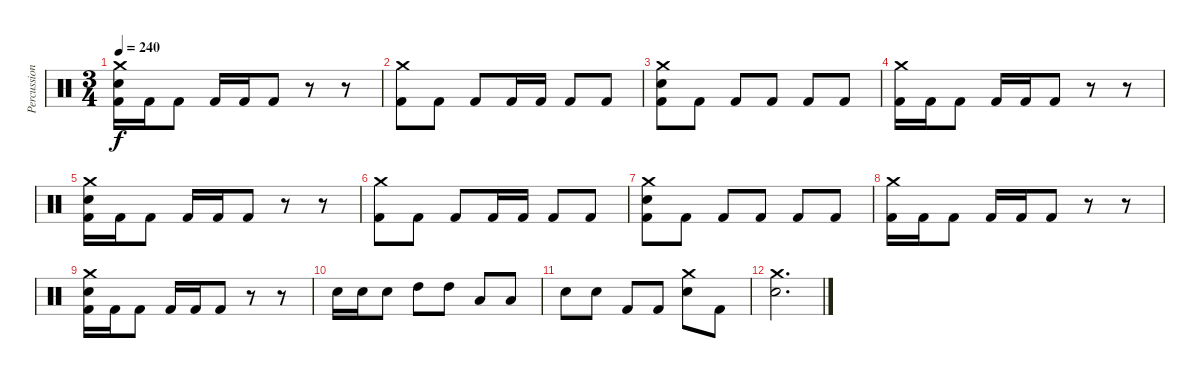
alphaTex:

\track ("Percussion" "Percussion") {instrument percussion}
\staff {score}
\articulation defaults
\ts (3 4)
\tempo 240
\clef neutral
\ks c
("Crash medium (hit)" "Electric Snare (hit)" "Kick (hit) 2").16{dy f} "Kick (hit) 2".16 "Kick (hit) 2".8 "Kick (hit) 2".16 "Kick (hit) 2".16 "Kick (hit) 2".8 r.8 r.8 |
("Crash medium (hit)" "Kick (hit) 2").8 "Kick (hit) 2".8 "Kick (hit) 2".8 "Kick (hit) 2".16 "Kick (hit) 2".16 "Kick (hit) 2".8 "Kick (hit) 2".8 |
("Crash medium (hit)" "Electric Snare (hit)" "Kick (hit) 2").8 "Kick (hit) 2".8 "Kick (hit) 2".8 "Kick (hit) 2".8 "Kick (hit) 2".8 "Kick (hit) 2".8 |
("Crash medium (hit)" "Kick (hit) 2").16 "Kick (hit) 2".16 "Kick (hit) 2".8 "Kick (hit) 2".16 "Kick (hit) 2".16 "Kick (hit) 2".8 r.8 r.8 |
("Crash medium (hit)" "Electric Snare (hit)" "Kick (hit) 2").16 "Kick (hit) 2".16 "Kick (hit) 2".8 "Kick (hit) 2".16 "Kick (hit) 2".16 "Kick (hit) 2".8 r.8 r.8 |
("Crash medium (hit)" "Kick (hit) 2").8 "Kick (hit) 2".8 "Kick (hit) 2".8 "Kick (hit) 2".16 "Kick (hit) 2".16 "Kick (hit) 2".8 "Kick (hit) 2".8 |
("Crash medium (hit)" "Electric Snare (hit)" "Kick (hit) 2").8 "Kick (hit) 2".8 "Kick (hit) 2".8 "Kick (hit) 2".8 "Kick (hit) 2".8 "Kick (hit) 2".8 |
("Crash medium (hit)" "Kick (hit) 2").16 "Kick (hit) 2".16 "Kick (hit) 2".8 "Kick (hit) 2".16 "Kick (hit) 2".16 "Kick (hit) 2".8 r.8 r.8 |
("Crash medium (hit)" "Electric Snare (hit)" "Kick (hit) 2").16 "Kick (hit) 2".16 "Kick (hit) 2".8 "Kick (hit) 2".16 "Kick (hit) 2".16 "Kick (hit) 2".8 r.8 r.8 |
"Electric Snare (hit)".16 "Electric Snare (hit)".16 "Electric Snare (hit)".8 "High Tom (hit)".8 "High Tom (hit)".8 "Low Tom (hit)".8 "Low Tom (hit)".8 |
"Electric Snare (hit)".8 "Electric Snare (hit)".8 "Kick (hit) 2".8 "Kick (hit) 2".8 ("Crash medium (hit)" "Electric Snare (hit)").8 "Kick (hit) 2".8 |
("Crash medium (hit)" "Electric Snare (hit)").2{d}
